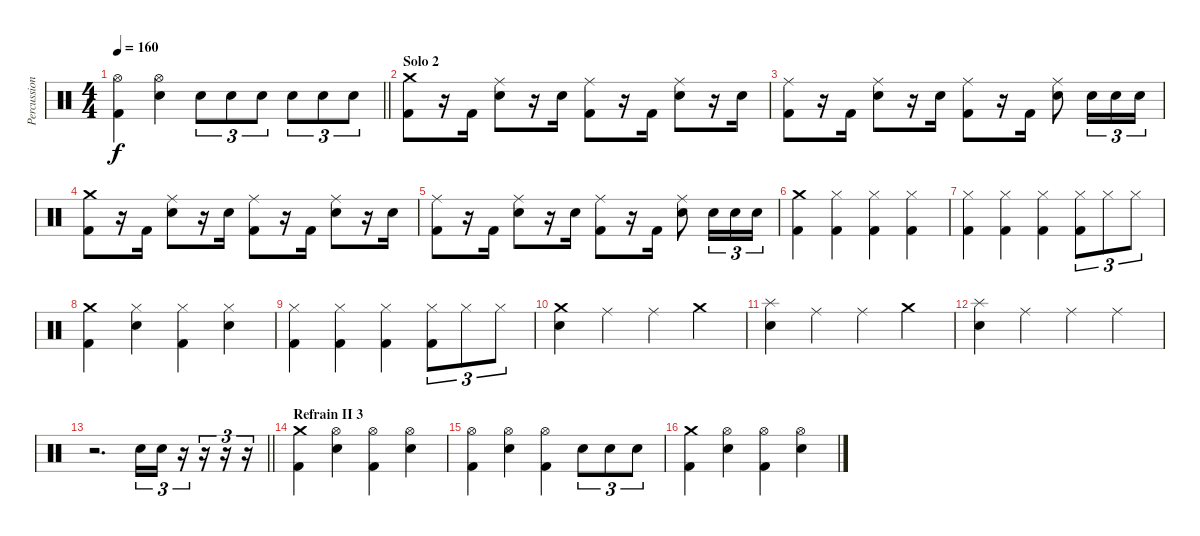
\track ("Percussions" "Percussion") {instrument percussion}
\staff
\articulation defaults
\ts (4 4)
\tempo 160
\clef neutral
\barLineRight lightlight
\ks c
("Hi-Hat (open)" "Kick (hit) 2").4{dy f} ("Hi-Hat (open)" "Electric Snare (hit)").4 "Electric Snare (hit)".8{tu (3 2)} "Electric Snare (hit)".8{tu (3 2)} "Electric Snare (hit)".8{tu (3 2)} "Electric Snare (hit)".8{tu (3 2)} "Electric Snare (hit)".8{tu (3 2)} "Electric Snare (hit)".8{tu (3 2)} |
\section ("" "Solo 2")
("Crash medium (hit)" "Kick (hit) 2").8 r.16 "Kick (hit) 2".16 ("Ride (middle)" "Electric Snare (hit)").8 r.16 "Electric Snare (hit)".16 ("Ride (middle)" "Kick (hit) 2").8 r.16 "Kick (hit) 2".16 ("Ride (middle)" "Electric Snare (hit)").8 r.16 "Electric Snare (hit)".16 |
("Ride (middle)" "Kick (hit) 2").8 r.16 "Kick (hit) 2".16 ("Ride (middle)" "Electric Snare (hit)").8 r.16 "Electric Snare (hit)".16 ("Ride (middle)" "Kick (hit) 2").8 r.16 "Kick (hit) 2".16 ("Ride (middle)" "Electric Snare (hit)").8 "Electric Snare (hit)".16{tu (3 2)} "Electric Snare (hit)".16{tu (3 2)} "Electric Snare (hit)".16{tu (3 2)} |
("Crash medium (hit)" "Kick (hit) 2").8 r.16 "Kick (hit) 2".16 ("Ride (middle)" "Electric Snare (hit)").8 r.16 "Electric Snare (hit)".16 ("Ride (middle)" "Kick (hit) 2").8 r.16 "Kick (hit) 2".16 ("Ride (middle)" "Electric Snare (hit)").8 r.16 "Electric Snare (hit)".16 |
("Ride (middle)" "Kick (hit) 2").8 r.16 "Kick (hit) 2".16 ("Ride (middle)" "Electric Snare (hit)").8 r.16 "Electric Snare (hit)".16 ("Ride (middle)" "Kick (hit) 2").8 r.16 "Kick (hit) 2".16 ("Ride (middle)" "Electric Snare (hit)").8 "Electric Snare (hit)".16{tu (3 2)} "Electric Snare (hit)".16{tu (3 2)} "Electric Snare (hit)".16{tu (3 2)} |
("Crash medium (hit)" "Kick (hit) 2").4 ("Hi-Hat (closed)" "Kick (hit) 2").4 ("Hi-Hat (closed)" "Kick (hit) 2").4 ("Hi-Hat (closed)" "Kick (hit) 2").4 |
("Hi-Hat (closed)" "Kick (hit) 2").4 ("Hi-Hat (closed)" "Kick (hit) 2").4 ("Hi-Hat (closed)" "Kick (hit) 2").4 ("Hi-Hat (closed)" "Kick (hit) 2").8{tu (3 2)} "Hi-Hat (closed)".8{tu (3 2)} "Hi-Hat (closed)".8{tu (3 2)} |
("Crash medium (hit)" "Kick (hit) 2").4 ("Hi-Hat (closed)" "Electric Snare (hit)").4 ("Hi-Hat (closed)" "Kick (hit) 2").4 ("Hi-Hat (closed)" "Electric Snare (hit)").4 |
("Hi-Hat (closed)" "Kick (hit) 2").4 ("Hi-Hat (closed)" "Kick (hit) 2").4 ("Hi-Hat (closed)" "Kick (hit) 2").4 ("Hi-Hat (closed)" "Kick (hit) 2").8{tu (3 2)} "Hi-Hat (closed)".8{tu (3 2)} "Hi-Hat (closed)".8{tu (3 2)} |
("Crash medium (hit)" "Electric Snare (hit)").4 "Ride (middle)".4 "Ride (middle)".4 "Crash medium (hit)".4 |
("Splash (hit)" "Electric Snare (hit)").4 "Ride (middle)".4 "Ride (middle)".4 "Crash medium (hit)".4 |
("Splash (hit)" "Electric Snare (hit)").4 "Ride (middle)".4 "Ride (middle)".4 "Ride (middle)".4 |
\barLineRight lightlight
r.2{d} "Electric Snare (hit)".16{tu (3 2)} "Electric Snare (hit)".16{tu (3 2)} r.16{tu (3 2)} r.16{tu (3 2)} r.16{tu (3 2)} r.16{tu (3 2)} |
\section ("" "Refrain II 3")
("Crash medium (hit)" "Kick (hit) 2").4 ("Hi-Hat (open)" "Electric Snare (hit)").4 ("Hi-Hat (open)" "Kick (hit) 2").4 ("Hi-Hat (open)" "Electric Snare (hit)").4 |
("Hi-Hat (open)" "Kick (hit) 2").4 ("Hi-Hat (open)" "Electric Snare (hit)").4 ("Hi-Hat (open)" "Kick (hit) 2").4 "Electric Snare (hit)".8{tu (3 2)} "Electric Snare (hit)".8{tu (3 2)} "Electric Snare (hit)".8{tu (3 2)} |
("Crash medium (hit)" "Kick (hit) 2").4 ("Hi-Hat (open)" "Electric Snare (hit)").4 ("Hi-Hat (open)" "Kick (hit) 2").4 ("Hi-Hat (open)" "Electric Snare (hit)").4
